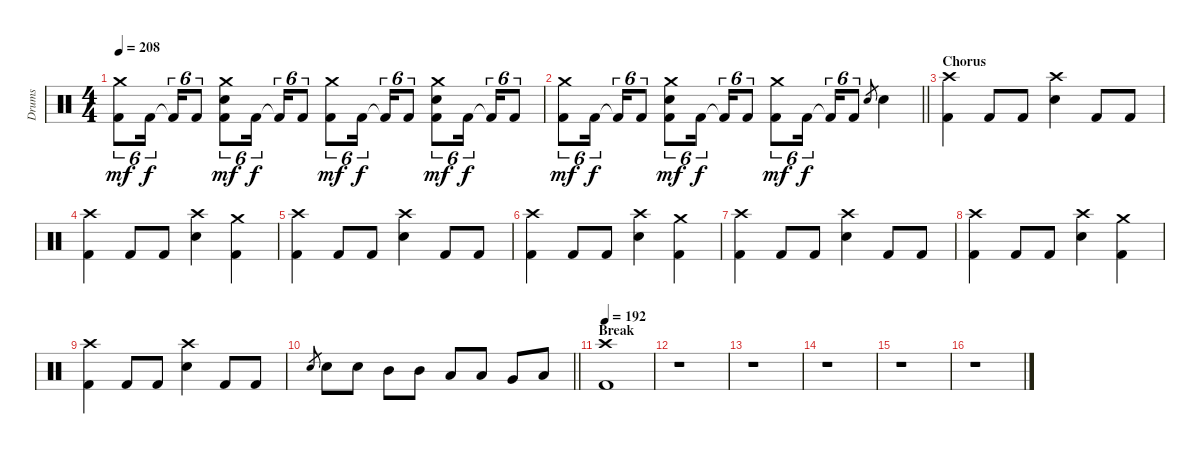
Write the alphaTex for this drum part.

\track ("Drums" "Drums") {instrument percussion}
\staff {score}
\articulation defaults
\ts (4 4)
\tempo 208
\clef neutral
\ks c
("Crash medium (hit)" "Kick (hit) 2").8{tu (6 4) dy mf} "Kick (hit) 2".16{tu (6 4) dy f beam splitsecondary} "Kick (hit) 2"{t}.16{tu (6 4)} "Kick (hit) 2".8{tu (6 4)} ("Crash medium (hit)" "Electric Snare (hit)" "Kick (hit) 2").8{tu (6 4) dy mf} "Kick (hit) 2".16{tu (6 4) dy f beam splitsecondary} "Kick (hit) 2"{t}.16{tu (6 4)} "Kick (hit) 2".8{tu (6 4)} ("Crash medium (hit)" "Kick (hit) 2").8{tu (6 4) dy mf} "Kick (hit) 2".16{tu (6 4) dy f beam splitsecondary} "Kick (hit) 2"{t}.16{tu (6 4)} "Kick (hit) 2".8{tu (6 4)} ("Crash medium (hit)" "Electric Snare (hit)" "Kick (hit) 2").8{tu (6 4) dy mf} "Kick (hit) 2".16{tu (6 4) dy f beam splitsecondary} "Kick (hit) 2"{t}.16{tu (6 4)} "Kick (hit) 2".8{tu (6 4)} |
\barLineRight lightlight
("Crash medium (hit)" "Kick (hit) 2").8{tu (6 4) dy mf} "Kick (hit) 2".16{tu (6 4) dy f beam splitsecondary} "Kick (hit) 2"{t}.16{tu (6 4)} "Kick (hit) 2".8{tu (6 4)} ("Crash medium (hit)" "Electric Snare (hit)" "Kick (hit) 2").8{tu (6 4) dy mf} "Kick (hit) 2".16{tu (6 4) dy f beam splitsecondary} "Kick (hit) 2"{t}.16{tu (6 4)} "Kick (hit) 2".8{tu (6 4)} ("Crash medium (hit)" "Kick (hit) 2").8{tu (6 4) dy mf} "Kick (hit) 2".16{tu (6 4) dy f beam splitsecondary} "Kick (hit) 2"{t}.16{tu (6 4)} "Kick (hit) 2".8{tu (6 4)} "Electric Snare (hit)".8{gr} "Electric Snare (hit)".4 |
\section ("" "Chorus")
("Crash high (hit)" "Kick (hit) 2").4 "Kick (hit) 2".8 "Kick (hit) 2".8 ("Crash high (hit)" "Electric Snare (hit)").4 "Kick (hit) 2".8 "Kick (hit) 2".8 |
("Crash high (hit)" "Kick (hit) 2").4 "Kick (hit) 2".8 "Kick (hit) 2".8 ("Crash high (hit)" "Electric Snare (hit)").4 ("Crash medium (hit)" "Kick (hit) 2").4 |
("Crash high (hit)" "Kick (hit) 2").4 "Kick (hit) 2".8 "Kick (hit) 2".8 ("Crash high (hit)" "Electric Snare (hit)").4 "Kick (hit) 2".8 "Kick (hit) 2".8 |
("Crash high (hit)" "Kick (hit) 2").4 "Kick (hit) 2".8 "Kick (hit) 2".8 ("Crash high (hit)" "Electric Snare (hit)").4 ("Crash medium (hit)" "Kick (hit) 2").4 |
("Crash high (hit)" "Kick (hit) 2").4 "Kick (hit) 2".8 "Kick (hit) 2".8 ("Crash high (hit)" "Electric Snare (hit)").4 "Kick (hit) 2".8 "Kick (hit) 2".8 |
("Crash high (hit)" "Kick (hit) 2").4 "Kick (hit) 2".8 "Kick (hit) 2".8 ("Crash high (hit)" "Electric Snare (hit)").4 ("Crash medium (hit)" "Kick (hit) 2").4 |
("Crash high (hit)" "Kick (hit) 2").4 "Kick (hit) 2".8 "Kick (hit) 2".8 ("Crash high (hit)" "Electric Snare (hit)").4 "Kick (hit) 2".8 "Kick (hit) 2".8 |
\barLineRight lightlight "Electric Snare (hit)".8{gr} "Electric Snare (hit)".8 "Electric Snare (hit)".8 "Mid Tom (hit)".8 "Mid Tom (hit)".8 "Low Tom (hit)".8 "Low Tom (hit)".8 "Very Low Tom (hit)".8 "Low Floor Tom (hit)".8
|
\section ("" "Break")
\tempo 192
("Crash high (hit)" "Kick (hit) 2").1 |
r.1 |
r.1 |
r.1 |
r.1 |
r.1
